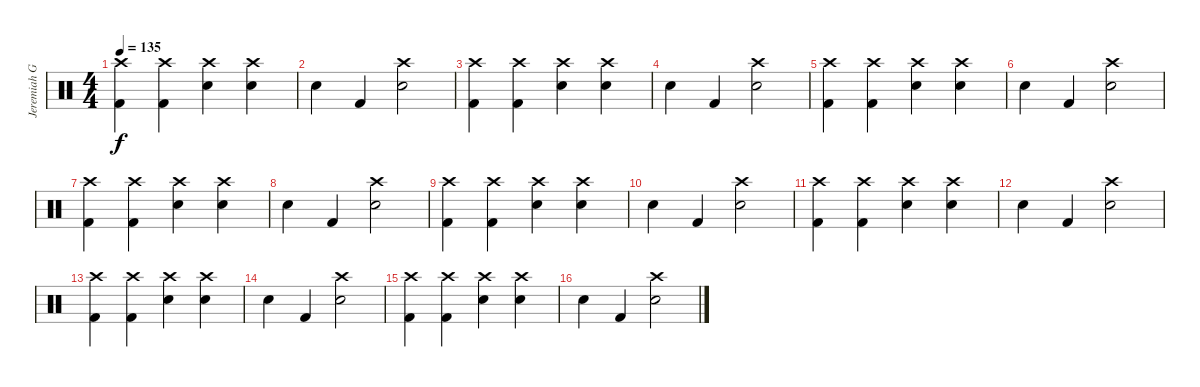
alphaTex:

\track ("Jeremiah Green" "Jeremiah G") {instrument percussion}
\staff {score}
\articulation defaults
\ts (4 4)
\tempo 135
\clef neutral
\ks c
("Crash high (hit)" "Kick (hit) 2").4{dy f} ("Crash high (hit)" "Kick (hit) 2").4 ("Crash high (hit)" "Electric Snare (hit)").4 ("Crash high (hit)" "Electric Snare (hit)").4 |
"Electric Snare (hit)".4 "Kick (hit) 2".4 ("Crash high (hit)" "Electric Snare (hit)").2 |
("Crash high (hit)" "Kick (hit) 2").4 ("Crash high (hit)" "Kick (hit) 2").4 ("Crash high (hit)" "Electric Snare (hit)").4 ("Crash high (hit)" "Electric Snare (hit)").4 |
"Electric Snare (hit)".4 "Kick (hit) 2".4 ("Crash high (hit)" "Electric Snare (hit)").2 |
("Crash high (hit)" "Kick (hit) 2").4 ("Crash high (hit)" "Kick (hit) 2").4 ("Crash high (hit)" "Electric Snare (hit)").4 ("Crash high (hit)" "Electric Snare (hit)").4 |
"Electric Snare (hit)".4 "Kick (hit) 2".4 ("Crash high (hit)" "Electric Snare (hit)").2 |
("Crash high (hit)" "Kick (hit) 2").4 ("Crash high (hit)" "Kick (hit) 2").4 ("Crash high (hit)" "Electric Snare (hit)").4 ("Crash high (hit)" "Electric Snare (hit)").4 |
"Electric Snare (hit)".4 "Kick (hit) 2".4 ("Crash high (hit)" "Electric Snare (hit)").2 |
("Crash high (hit)" "Kick (hit) 2").4 ("Crash high (hit)" "Kick (hit) 2").4 ("Crash high (hit)" "Electric Snare (hit)").4 ("Crash high (hit)" "Electric Snare (hit)").4 |
"Electric Snare (hit)".4 "Kick (hit) 2".4 ("Crash high (hit)" "Electric Snare (hit)").2 |
("Crash high (hit)" "Kick (hit) 2").4 ("Crash high (hit)" "Kick (hit) 2").4 ("Crash high (hit)" "Electric Snare (hit)").4 ("Crash high (hit)" "Electric Snare (hit)").4 |
"Electric Snare (hit)".4 "Kick (hit) 2".4 ("Crash high (hit)" "Electric Snare (hit)").2 |
("Crash high (hit)" "Kick (hit) 2").4{volume 8} ("Crash high (hit)" "Kick (hit) 2").4 ("Crash high (hit)" "Electric Snare (hit)").4 ("Crash high (hit)" "Electric Snare (hit)").4 |
"Electric Snare (hit)".4 "Kick (hit) 2".4 ("Crash high (hit)" "Electric Snare (hit)").2 |
("Crash high (hit)" "Kick (hit) 2").4{volume 6} ("Crash high (hit)" "Kick (hit) 2").4 ("Crash high (hit)" "Electric Snare (hit)").4 ("Crash high (hit)" "Electric Snare (hit)").4 |
"Electric Snare (hit)".4 "Kick (hit) 2".4 ("Crash high (hit)" "Electric Snare (hit)").2
